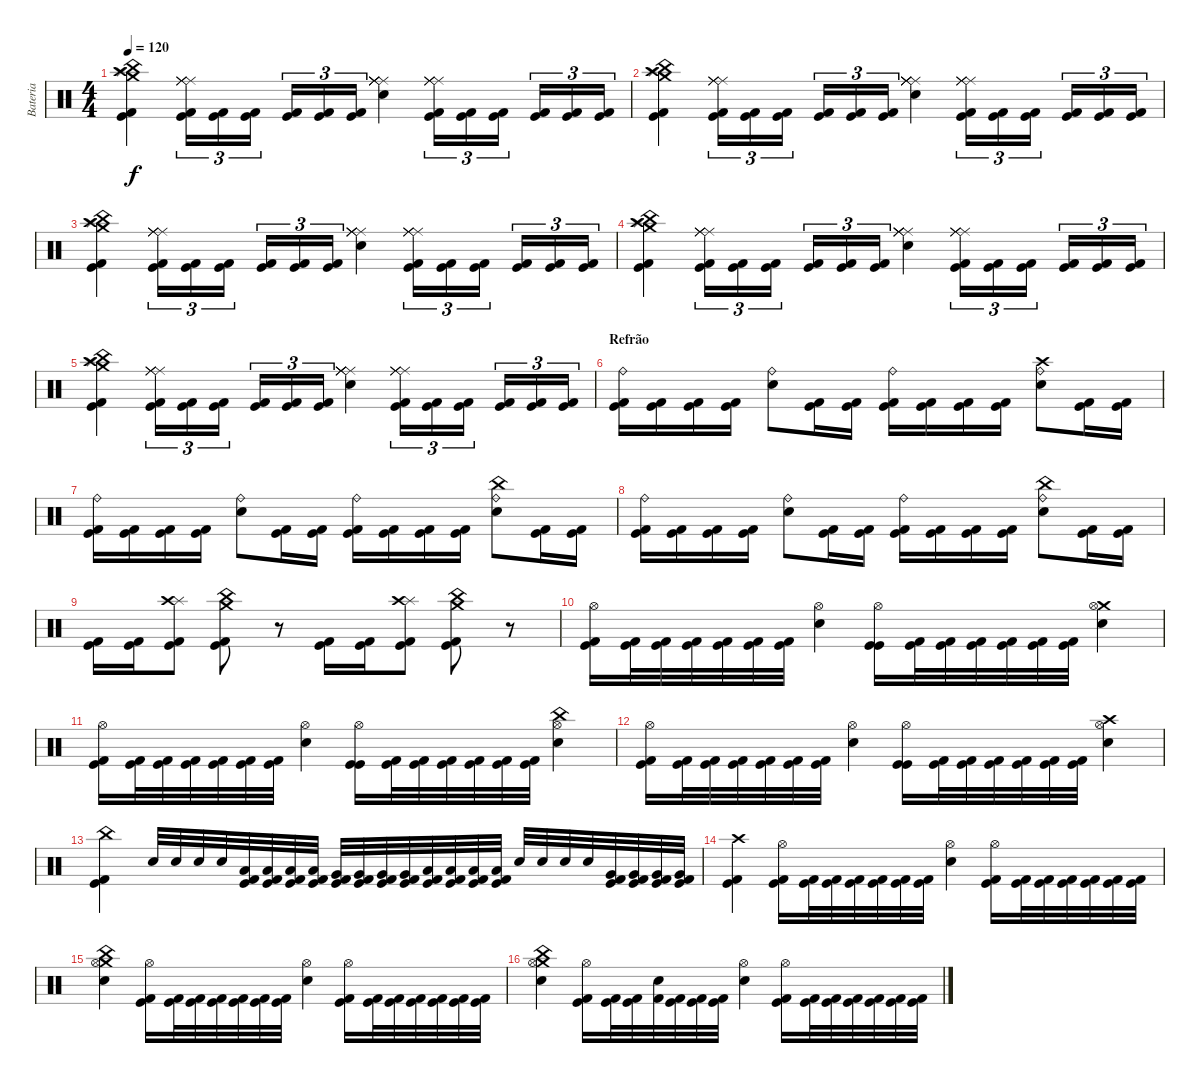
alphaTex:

\track ("Bateria" "Bateria") {instrument percussion}
\staff {score}
\articulation defaults
\ts (4 4)
\tempo 120
\clef neutral
\ks c
("Crash medium (hit)" "China (hit)" "Splash (hit)" "Crash high (hit)" "Kick (hit)" "Kick (hit) 2").4{dy f} ("Ride (middle)" "Ride (middle)" "Ride (middle)" "Kick (hit) 2" "Kick (hit)" "Ride (middle)").16{tu (3 2)} ("Kick (hit)" "Kick (hit) 2").16{tu (3 2)} ("Kick (hit)" "Kick (hit) 2").16{tu (3 2)} ("Kick (hit)" "Kick (hit) 2").16{tu (3 2)} ("Kick (hit)" "Kick (hit) 2").16{tu (3 2)} ("Kick (hit)" "Kick (hit) 2").16{tu (3 2)} ("Ride (middle)" "Ride (middle)" "Ride (middle)" "Electric Snare (hit)" "Ride (middle)" "Ride (middle)").4 ("Ride (middle)" "Ride (middle)" "Ride (middle)" "Kick (hit) 2" "Kick (hit)" "Ride (middle)").16{tu (3 2)} ("Kick (hit) 2" "Kick (hit)").16{tu (3 2)} ("Kick (hit) 2" "Kick (hit)").16{tu (3 2)} ("Kick (hit) 2" "Kick (hit)").16{tu (3 2)} ("Kick (hit) 2" "Kick (hit)").16{tu (3 2)} ("Kick (hit) 2" "Kick (hit)").16{tu (3 2)} |
("Crash medium (hit)" "China (hit)" "Splash (hit)" "Crash high (hit)" "Kick (hit)" "Kick (hit) 2").4 ("Ride (middle)" "Ride (middle)" "Ride (middle)" "Kick (hit) 2" "Kick (hit)" "Ride (middle)").16{tu (3 2)} ("Kick (hit)" "Kick (hit) 2").16{tu (3 2)} ("Kick (hit)" "Kick (hit) 2").16{tu (3 2)} ("Kick (hit)" "Kick (hit) 2").16{tu (3 2)} ("Kick (hit)" "Kick (hit) 2").16{tu (3 2)} ("Kick (hit)" "Kick (hit) 2").16{tu (3 2)} ("Ride (middle)" "Ride (middle)" "Ride (middle)" "Electric Snare (hit)" "Ride (middle)" "Ride (middle)").4 ("Ride (middle)" "Ride (middle)" "Ride (middle)" "Kick (hit) 2" "Kick (hit)" "Ride (middle)").16{tu (3 2)} ("Kick (hit) 2" "Kick (hit)").16{tu (3 2)} ("Kick (hit) 2" "Kick (hit)").16{tu (3 2)} ("Kick (hit) 2" "Kick (hit)").16{tu (3 2)} ("Kick (hit) 2" "Kick (hit)").16{tu (3 2)} ("Kick (hit) 2" "Kick (hit)").16{tu (3 2)} |
("Crash medium (hit)" "China (hit)" "Splash (hit)" "Crash high (hit)" "Kick (hit)" "Kick (hit) 2").4 ("Ride (middle)" "Ride (middle)" "Ride (middle)" "Kick (hit) 2" "Kick (hit)" "Ride (middle)").16{tu (3 2)} ("Kick (hit)" "Kick (hit) 2").16{tu (3 2)} ("Kick (hit)" "Kick (hit) 2").16{tu (3 2)} ("Kick (hit)" "Kick (hit) 2").16{tu (3 2)} ("Kick (hit)" "Kick (hit) 2").16{tu (3 2)} ("Kick (hit)" "Kick (hit) 2").16{tu (3 2)} ("Ride (middle)" "Ride (middle)" "Ride (middle)" "Electric Snare (hit)" "Ride (middle)" "Ride (middle)").4 ("Ride (middle)" "Ride (middle)" "Ride (middle)" "Kick (hit) 2" "Kick (hit)" "Ride (middle)").16{tu (3 2)} ("Kick (hit) 2" "Kick (hit)").16{tu (3 2)} ("Kick (hit) 2" "Kick (hit)").16{tu (3 2)} ("Kick (hit) 2" "Kick (hit)").16{tu (3 2)} ("Kick (hit) 2" "Kick (hit)").16{tu (3 2)} ("Kick (hit) 2" "Kick (hit)").16{tu (3 2)} |
("Crash medium (hit)" "China (hit)" "Splash (hit)" "Crash high (hit)" "Kick (hit)" "Kick (hit) 2").4 ("Ride (middle)" "Ride (middle)" "Ride (middle)" "Kick (hit) 2" "Kick (hit)" "Ride (middle)").16{tu (3 2)} ("Kick (hit)" "Kick (hit) 2").16{tu (3 2)} ("Kick (hit)" "Kick (hit) 2").16{tu (3 2)} ("Kick (hit)" "Kick (hit) 2").16{tu (3 2)} ("Kick (hit)" "Kick (hit) 2").16{tu (3 2)} ("Kick (hit)" "Kick (hit) 2").16{tu (3 2)} ("Ride (middle)" "Ride (middle)" "Ride (middle)" "Electric Snare (hit)" "Ride (middle)" "Ride (middle)").4 ("Ride (middle)" "Ride (middle)" "Ride (middle)" "Kick (hit) 2" "Kick (hit)" "Ride (middle)").16{tu (3 2)} ("Kick (hit) 2" "Kick (hit)").16{tu (3 2)} ("Kick (hit) 2" "Kick (hit)").16{tu (3 2)} ("Kick (hit) 2" "Kick (hit)").16{tu (3 2)} ("Kick (hit) 2" "Kick (hit)").16{tu (3 2)} ("Kick (hit) 2" "Kick (hit)").16{tu (3 2)} |
("Crash medium (hit)" "China (hit)" "Splash (hit)" "Crash high (hit)" "Kick (hit)" "Kick (hit) 2").4 ("Ride (middle)" "Ride (middle)" "Ride (middle)" "Kick (hit) 2" "Kick (hit)" "Ride (middle)").16{tu (3 2)} ("Kick (hit)" "Kick (hit) 2").16{tu (3 2)} ("Kick (hit)" "Kick (hit) 2").16{tu (3 2)} ("Kick (hit)" "Kick (hit) 2").16{tu (3 2)} ("Kick (hit)" "Kick (hit) 2").16{tu (3 2)} ("Kick (hit)" "Kick (hit) 2").16{tu (3 2)} ("Ride (middle)" "Ride (middle)" "Ride (middle)" "Electric Snare (hit)" "Ride (middle)" "Ride (middle)").4 ("Ride (middle)" "Ride (middle)" "Ride (middle)" "Kick (hit) 2" "Kick (hit)" "Ride (middle)").16{tu (3 2)} ("Kick (hit) 2" "Kick (hit)").16{tu (3 2)} ("Kick (hit) 2" "Kick (hit)").16{tu (3 2)} ("Kick (hit) 2" "Kick (hit)").16{tu (3 2)} ("Kick (hit) 2" "Kick (hit)").16{tu (3 2)} ("Kick (hit) 2" "Kick (hit)").16{tu (3 2)} |
\section ("" "Refrão")
("Kick (hit) 2" "Kick (hit)" "Ride (bell)").16 ("Kick (hit) 2" "Kick (hit)").16 ("Kick (hit)" "Kick (hit) 2").16 ("Kick (hit)" "Kick (hit) 2").16 ("Electric Snare (hit)" "Ride (bell)").8 ("Kick (hit)" "Kick (hit) 2").16 ("Kick (hit)" "Kick (hit) 2").16 ("Kick (hit) 2" "Kick (hit)" "Ride (bell)").16 ("Kick (hit)" "Kick (hit) 2").16 ("Kick (hit)" "Kick (hit) 2").16 ("Kick (hit)" "Kick (hit) 2").16 ("Crash high (hit)" "Electric Snare (hit)" "Ride (bell)").8 ("Kick (hit) 2" "Kick (hit)").16 ("Kick (hit) 2" "Kick (hit)").16 |
("Kick (hit) 2" "Kick (hit)" "Ride (bell)").16 ("Kick (hit) 2" "Kick (hit)").16 ("Kick (hit) 2" "Kick (hit)").16 ("Kick (hit) 2" "Kick (hit)").16 ("Electric Snare (hit)" "Ride (bell)").8 ("Kick (hit)" "Kick (hit) 2").16 ("Kick (hit)" "Kick (hit) 2").16 ("Kick (hit)" "Kick (hit) 2" "Ride (bell)").16 ("Kick (hit)" "Kick (hit) 2").16 ("Kick (hit)" "Kick (hit) 2").16 ("Kick (hit)" "Kick (hit) 2").16 ("China (hit)" "Electric Snare (hit)" "Ride (bell)").8 ("Kick (hit)" "Kick (hit) 2").16 ("Kick (hit)" "Kick (hit) 2").16 |
("Kick (hit)" "Kick (hit) 2" "Ride (bell)").16 ("Kick (hit)" "Kick (hit) 2").16 ("Kick (hit)" "Kick (hit) 2").16 ("Kick (hit)" "Kick (hit) 2").16 ("Electric Snare (hit)" "Ride (bell)").8 ("Kick (hit) 2" "Kick (hit)").16 ("Kick (hit) 2" "Kick (hit)").16 ("Kick (hit) 2" "Kick (hit)" "Ride (bell)").16 ("Kick (hit) 2" "Kick (hit)").16 ("Kick (hit) 2" "Kick (hit)").16 ("Kick (hit) 2" "Kick (hit)").16 ("China (hit)" "Electric Snare (hit)" "Ride (bell)").8 ("Kick (hit)" "Kick (hit) 2").16 ("Kick (hit)" "Kick (hit) 2").16 |
("Kick (hit)" "Kick (hit) 2").16 ("Kick (hit) 2" "Kick (hit)").16 ("Splash (hit)" "Crash high (hit)" "Kick (hit) 2" "Kick (hit)").8 ("Crash medium (hit)" "China (hit)" "Kick (hit) 2" "Kick (hit)").8 r.8 ("Kick (hit) 2" "Kick (hit)").16 ("Kick (hit) 2" "Kick (hit)").16 ("Splash (hit)" "Crash high (hit)" "Kick (hit)" "Kick (hit) 2").8 ("Crash medium (hit)" "China (hit)" "Kick (hit)" "Kick (hit) 2").8 r.8 |
("Kick (hit) 2" "Kick (hit)" "Hi-Hat (open)").16 ("Kick (hit) 2" "Kick (hit)").32 ("Kick (hit) 2" "Kick (hit)").32 ("Kick (hit) 2" "Kick (hit)").32 ("Kick (hit) 2" "Kick (hit)").32 ("Kick (hit) 2" "Kick (hit)").32 ("Kick (hit) 2" "Kick (hit)").32 ("Electric Snare (hit)" "Hi-Hat (open)").4 ("Kick (hit)" "Kick (hit)" "Hi-Hat (open)").16 ("Kick (hit) 2" "Kick (hit)").32 ("Kick (hit) 2" "Kick (hit)").32 ("Kick (hit) 2" "Kick (hit)").32 ("Kick (hit) 2" "Kick (hit)").32 ("Kick (hit) 2" "Kick (hit)").32 ("Kick (hit) 2" "Kick (hit)").32 ("Crash medium (hit)" "Electric Snare (hit)" "Hi-Hat (open)").4 |
("Kick (hit) 2" "Kick (hit)" "Hi-Hat (open)").16 ("Kick (hit) 2" "Kick (hit)").32 ("Kick (hit) 2" "Kick (hit)").32 ("Kick (hit) 2" "Kick (hit)").32 ("Kick (hit) 2" "Kick (hit)").32 ("Kick (hit) 2" "Kick (hit)").32 ("Kick (hit) 2" "Kick (hit)").32 ("Electric Snare (hit)" "Hi-Hat (open)").4 ("Kick (hit)" "Kick (hit)" "Hi-Hat (open)").16 ("Kick (hit) 2" "Kick (hit)").32 ("Kick (hit) 2" "Kick (hit)").32 ("Kick (hit) 2" "Kick (hit)").32 ("Kick (hit) 2" "Kick (hit)").32 ("Kick (hit) 2" "Kick (hit)").32 ("Kick (hit) 2" "Kick (hit)").32 ("China (hit)" "Electric Snare (hit)" "Hi-Hat (open)").4 |
("Kick (hit) 2" "Kick (hit)" "Hi-Hat (open)").16 ("Kick (hit) 2" "Kick (hit)").32 ("Kick (hit) 2" "Kick (hit)").32 ("Kick (hit) 2" "Kick (hit)").32 ("Kick (hit) 2" "Kick (hit)").32 ("Kick (hit) 2" "Kick (hit)").32 ("Kick (hit) 2" "Kick (hit)").32 ("Electric Snare (hit)" "Hi-Hat (open)").4 ("Kick (hit)" "Kick (hit)" "Hi-Hat (open)").16 ("Kick (hit) 2" "Kick (hit)").32 ("Kick (hit) 2" "Kick (hit)").32 ("Kick (hit) 2" "Kick (hit)").32 ("Kick (hit) 2" "Kick (hit)").32 ("Kick (hit) 2" "Kick (hit)").32 ("Kick (hit) 2" "Kick (hit)").32 ("Crash high (hit)" "Electric Snare (hit)" "Hi-Hat (open)").4 |
("China (hit)" "Kick (hit) 2" "Kick (hit)").4 "Electric Snare (hit)".32 "Electric Snare (hit)".32 "Electric Snare (hit)".32 "Electric Snare (hit)".32 ("Kick (hit) 2" "Kick (hit)" "Low Floor Tom (hit)").32 ("Kick (hit) 2" "Kick (hit)" "Low Floor Tom (hit)").32 ("Kick (hit) 2" "Kick (hit)" "Low Floor Tom (hit)").32 ("Kick (hit) 2" "Kick (hit)" "Low Floor Tom (hit)").32 ("Very Low Tom (hit)" "Kick (hit)" "Kick (hit) 2").32 ("Very Low Tom (hit)" "Kick (hit)" "Kick (hit) 2").32 ("Very Low Tom (hit)" "Kick (hit)" "Kick (hit) 2").32 ("Very Low Tom (hit)" "Kick (hit)" "Kick (hit) 2").32 ("Low Floor Tom (hit)" "Kick (hit)" "Kick (hit) 2").32 ("Low Floor Tom (hit)" "Kick (hit)" "Kick (hit) 2").32 ("Low Floor Tom (hit)" "Kick (hit)" "Kick (hit) 2").32 ("Low Floor Tom (hit)" "Kick (hit)" "Kick (hit) 2").32 "Electric Snare (hit)".32 "Electric Snare (hit)".32 "Electric Snare (hit)".32 "Electric Snare (hit)".32 ("Very Low Tom (hit)" "Kick (hit)" "Kick (hit) 2").32 ("Very Low Tom (hit)" "Kick (hit)" "Kick (hit) 2").32 ("Very Low Tom (hit)" "Kick (hit)" "Kick (hit) 2").32 ("Very Low Tom (hit)" "Kick (hit)" "Kick (hit) 2").32 |
("Crash high (hit)" "Kick (hit)" "Kick (hit) 2").4 ("Hi-Hat (open)" "Kick (hit) 2" "Kick (hit)").16 ("Kick (hit) 2" "Kick (hit)").32 ("Kick (hit) 2" "Kick (hit)").32 ("Kick (hit) 2" "Kick (hit)").32 ("Kick (hit) 2" "Kick (hit)").32 ("Kick (hit) 2" "Kick (hit)").32 ("Kick (hit) 2" "Kick (hit)").32 ("Hi-Hat (open)" "Electric Snare (hit)").4 ("Hi-Hat (open)" "Kick (hit)" "Kick (hit) 2").16 ("Kick (hit)" "Kick (hit) 2").32 ("Kick (hit)" "Kick (hit) 2").32 ("Kick (hit)" "Kick (hit) 2").32 ("Kick (hit)" "Kick (hit) 2").32 ("Kick (hit)" "Kick (hit) 2").32 ("Kick (hit)" "Kick (hit) 2").32 |
("China (hit)" "Crash medium (hit)" "Electric Snare (hit)" "Hi-Hat (open)").4 ("Hi-Hat (open)" "Kick (hit) 2" "Kick (hit)").16 ("Kick (hit) 2" "Kick (hit)").32 ("Kick (hit) 2" "Kick (hit)").32 ("Kick (hit) 2" "Kick (hit)").32 ("Kick (hit) 2" "Kick (hit)").32 ("Kick (hit) 2" "Kick (hit)").32 ("Kick (hit) 2" "Kick (hit)").32 ("Electric Snare (hit)" "Hi-Hat (open)").4 ("Hi-Hat (open)" "Kick (hit) 2" "Kick (hit)").16 ("Kick (hit)" "Kick (hit) 2").32 ("Kick (hit)" "Kick (hit) 2").32 ("Kick (hit)" "Kick (hit) 2").32 ("Kick (hit)" "Kick (hit) 2").32 ("Kick (hit)" "Kick (hit) 2").32 ("Kick (hit)" "Kick (hit) 2").32 |
("China (hit)" "Crash medium (hit)" "Electric Snare (hit)" "Hi-Hat (open)").4 ("Hi-Hat (open)" "Kick (hit)" "Kick (hit) 2").16 ("Kick (hit)" "Kick (hit) 2").32 ("Kick (hit)" "Kick (hit) 2").32 ("Snare (hit)" "Kick (hit) 2").32 ("Kick (hit)" "Kick (hit) 2").32 ("Kick (hit)" "Kick (hit) 2").32 ("Kick (hit)" "Kick (hit) 2").32 ("Electric Snare (hit)" "Hi-Hat (open)").4 ("Hi-Hat (open)" "Kick (hit)" "Kick (hit) 2").16 ("Kick (hit)" "Kick (hit) 2").32 ("Kick (hit)" "Kick (hit) 2").32 ("Kick (hit)" "Kick (hit) 2").32 ("Kick (hit)" "Kick (hit) 2").32 ("Kick (hit)" "Kick (hit) 2").32 ("Kick (hit)" "Kick (hit) 2").32
